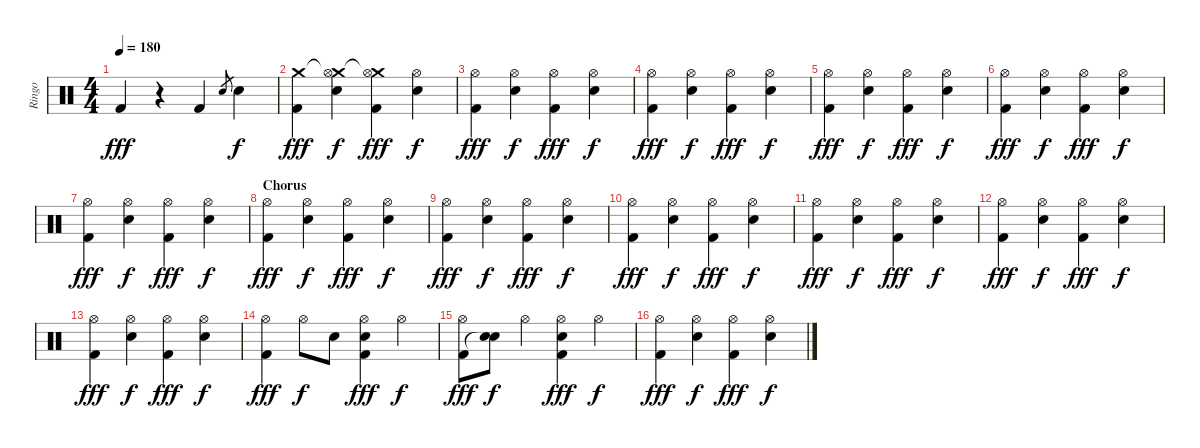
\track ("Ringo" "Ringo") {instrument percussion}
\staff {score}
\articulation defaults
\ts (4 4)
\tempo 180
\clef neutral
\ks c "Kick (hit) 2".4{dy fff}
r.4 "Kick (hit) 2".4 "Snare (hit) 2".8{gr} "Snare (hit) 2".4{dy f} |
("Crash medium (hit)" "Kick (hit) 2").4{dy fff} ("Crash medium (hit)"{t} "Hi-Hat (open)" "Snare (hit) 2").4{dy f} ("Crash medium (hit)"{t} "Hi-Hat (open)" "Kick (hit) 2").4{dy fff} ("Hi-Hat (open)" "Snare (hit) 2").4{dy f} |
("Hi-Hat (open)" "Kick (hit) 2").4{dy fff} ("Hi-Hat (open)" "Snare (hit) 2").4{dy f} ("Hi-Hat (open)" "Kick (hit) 2").4{dy fff} ("Hi-Hat (open)" "Snare (hit) 2").4{dy f} |
("Hi-Hat (open)" "Kick (hit) 2").4{dy fff} ("Hi-Hat (open)" "Snare (hit) 2").4{dy f} ("Hi-Hat (open)" "Kick (hit) 2").4{dy fff} ("Hi-Hat (open)" "Snare (hit) 2").4{dy f} |
("Hi-Hat (open)" "Kick (hit) 2").4{dy fff} ("Hi-Hat (open)" "Snare (hit) 2").4{dy f} ("Hi-Hat (open)" "Kick (hit) 2").4{dy fff} ("Hi-Hat (open)" "Snare (hit) 2").4{dy f} |
("Hi-Hat (open)" "Kick (hit) 2").4{dy fff} ("Hi-Hat (open)" "Snare (hit) 2").4{dy f} ("Hi-Hat (open)" "Kick (hit) 2").4{dy fff} ("Hi-Hat (open)" "Snare (hit) 2").4{dy f} |
("Hi-Hat (open)" "Kick (hit) 2").4{dy fff} ("Hi-Hat (open)" "Snare (hit) 2").4{dy f} ("Hi-Hat (open)" "Kick (hit) 2").4{dy fff} ("Hi-Hat (open)" "Snare (hit) 2").4{dy f} |
\section ("" "Chorus")
("Hi-Hat (open)" "Kick (hit) 2").4{dy fff} ("Hi-Hat (open)" "Snare (hit) 2").4{dy f} ("Hi-Hat (open)" "Kick (hit) 2").4{dy fff} ("Hi-Hat (open)" "Snare (hit) 2").4{dy f} |
("Hi-Hat (open)" "Kick (hit) 2").4{dy fff} ("Hi-Hat (open)" "Snare (hit) 2").4{dy f} ("Hi-Hat (open)" "Kick (hit) 2").4{dy fff} ("Hi-Hat (open)" "Snare (hit) 2").4{dy f} |
("Hi-Hat (open)" "Kick (hit) 2").4{dy fff} ("Hi-Hat (open)" "Snare (hit) 2").4{dy f} ("Hi-Hat (open)" "Kick (hit) 2").4{dy fff} ("Hi-Hat (open)" "Snare (hit) 2").4{dy f} |
("Hi-Hat (open)" "Kick (hit) 2").4{dy fff} ("Hi-Hat (open)" "Snare (hit) 2").4{dy f} ("Hi-Hat (open)" "Kick (hit) 2").4{dy fff} ("Hi-Hat (open)" "Snare (hit) 2").4{dy f} |
("Hi-Hat (open)" "Kick (hit) 2").4{dy fff} ("Hi-Hat (open)" "Snare (hit) 2").4{dy f} ("Hi-Hat (open)" "Kick (hit) 2").4{dy fff} ("Hi-Hat (open)" "Snare (hit) 2").4{dy f} |
("Hi-Hat (open)" "Kick (hit) 2").4{dy fff} ("Hi-Hat (open)" "Snare (hit) 2").4{dy f} ("Hi-Hat (open)" "Kick (hit) 2").4{dy fff} ("Hi-Hat (open)" "Snare (hit) 2").4{dy f} |
("Hi-Hat (open)" "Kick (hit) 2").4{dy fff} "Hi-Hat (open)".8{dy f} "Snare (hit) 2".8 ("Hi-Hat (open)" "Snare (hit) 2" "Kick (hit) 2").4{dy fff} "Hi-Hat (open)".4{dy f} |
("Hi-Hat (open)" "Kick (hit) 2").8{dy fff} ("Snare (hit) 2" "Snare (hit)"{t}).8{dy f} "Hi-Hat (open)".4 ("Hi-Hat (open)" "Snare (hit) 2" "Kick (hit) 2").4{dy fff} "Hi-Hat (open)".4{dy f} |
("Hi-Hat (open)" "Kick (hit) 2").4{dy fff} ("Hi-Hat (open)" "Snare (hit) 2").4{dy f} ("Hi-Hat (open)" "Kick (hit) 2").4{dy fff} ("Hi-Hat (open)" "Snare (hit) 2").4{dy f}
